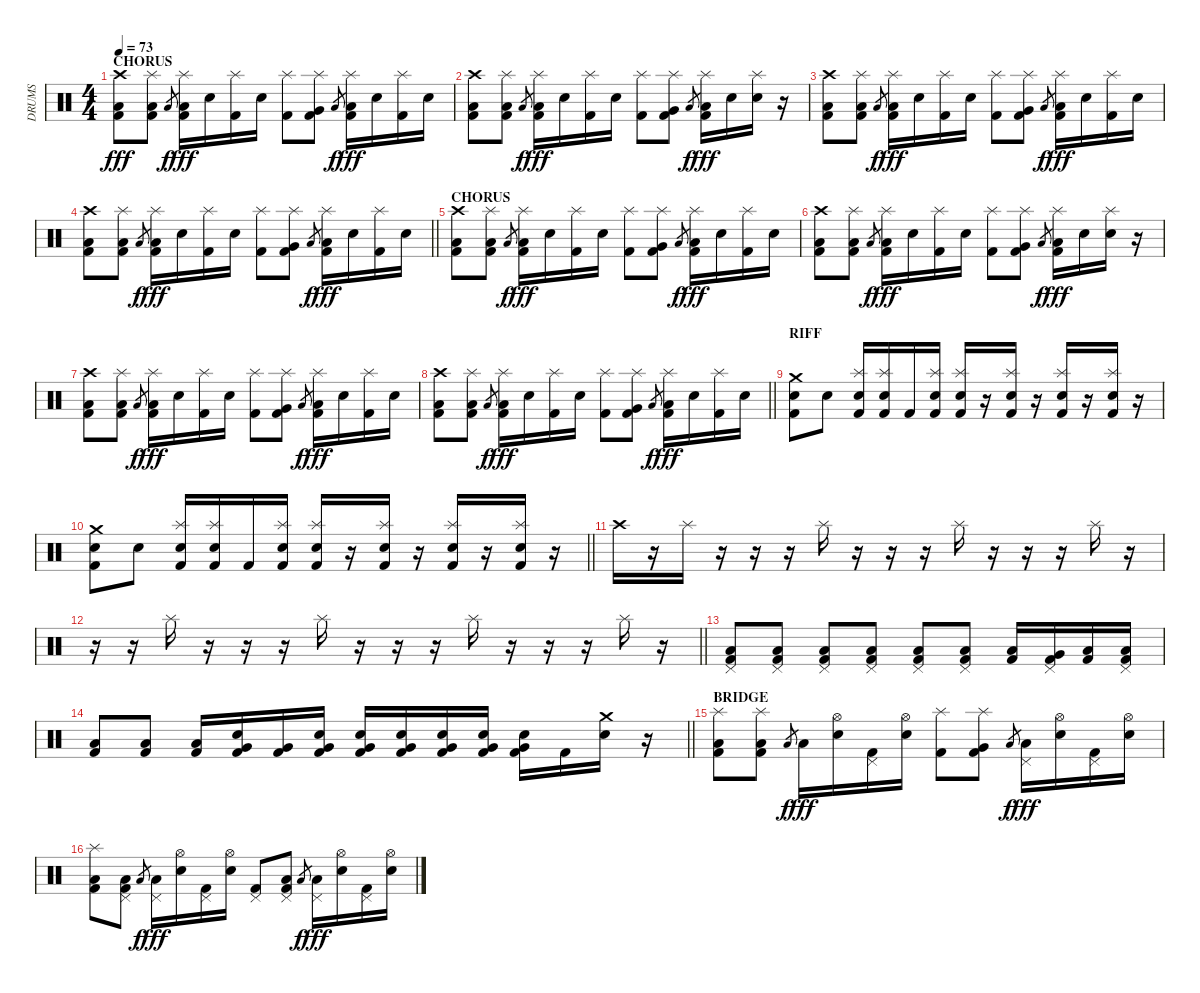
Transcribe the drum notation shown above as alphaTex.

\track ("DRUMS" "DRUMS") {instrument percussion}
\staff {score}
\articulation defaults
\ts (4 4)
\section ("" "CHORUS")
\tempo 73
\clef neutral
\ks c
("Crash high (hit)" "Low Tom (hit)" "Kick (hit) 2").8{dy fff} ("Splash (hit)" "Low Tom (hit)" "Kick (hit) 2").8 "Low Tom (hit)".8{gr dy f} ("Splash (hit)" "Low Tom (hit)" "Kick (hit) 2").16{dy fff} "Electric Snare (hit)".16 ("Splash (hit)" "Kick (hit) 2").16 "Electric Snare (hit)".16 ("Splash (hit)" "Kick (hit) 2").8 ("Splash (hit)" "Very Low Tom (hit)" "Kick (hit) 2").8 "Low Tom (hit)".8{gr dy f} ("Splash (hit)" "Low Tom (hit)" "Kick (hit) 2").16{dy fff} "Electric Snare (hit)".16 ("Splash (hit)" "Kick (hit) 2").16 "Electric Snare (hit)".16 |
("Crash high (hit)" "Low Tom (hit)" "Kick (hit) 2").8 ("Splash (hit)" "Low Tom (hit)" "Kick (hit) 2").8 "Low Tom (hit)".8{gr dy f} ("Splash (hit)" "Low Tom (hit)" "Kick (hit) 2").16{dy fff} "Electric Snare (hit)".16 ("Splash (hit)" "Kick (hit) 2").16 "Electric Snare (hit)".16 ("Splash (hit)" "Kick (hit) 2").8 ("Splash (hit)" "Very Low Tom (hit)" "Kick (hit) 2").8 "Low Tom (hit)".8{gr dy f} ("Splash (hit)" "Low Tom (hit)" "Kick (hit) 2").16{dy fff} "Electric Snare (hit)".16 ("Splash (hit)" "Electric Snare (hit)").16 r.16 |
("Crash high (hit)" "Low Tom (hit)" "Kick (hit) 2").8 ("Splash (hit)" "Low Tom (hit)" "Kick (hit) 2").8 "Low Tom (hit)".8{gr dy f} ("Splash (hit)" "Low Tom (hit)" "Kick (hit) 2").16{dy fff} "Electric Snare (hit)".16 ("Splash (hit)" "Kick (hit) 2").16 "Electric Snare (hit)".16 ("Splash (hit)" "Kick (hit) 2").8 ("Splash (hit)" "Very Low Tom (hit)" "Kick (hit) 2").8 "Low Tom (hit)".8{gr dy f} ("Splash (hit)" "Low Tom (hit)" "Kick (hit) 2").16{dy fff} "Electric Snare (hit)".16 ("Splash (hit)" "Kick (hit) 2").16 "Electric Snare (hit)".16 |
\barLineRight lightlight
("Crash high (hit)" "Low Tom (hit)" "Kick (hit) 2").8 ("Splash (hit)" "Low Tom (hit)" "Kick (hit) 2").8 "Low Tom (hit)".8{gr dy f} ("Splash (hit)" "Low Tom (hit)" "Kick (hit) 2").16{dy fff} "Electric Snare (hit)".16 ("Splash (hit)" "Kick (hit) 2").16 "Electric Snare (hit)".16 ("Splash (hit)" "Kick (hit) 2").8 ("Splash (hit)" "Very Low Tom (hit)" "Kick (hit) 2").8 "Low Tom (hit)".8{gr dy f} ("Splash (hit)" "Low Tom (hit)" "Kick (hit) 2").16{dy fff} "Electric Snare (hit)".16 ("Splash (hit)" "Kick (hit) 2").16 "Electric Snare (hit)".16 |
\section ("" "CHORUS")
("Crash high (hit)" "Low Tom (hit)" "Kick (hit) 2").8 ("Splash (hit)" "Low Tom (hit)" "Kick (hit) 2").8 "Low Tom (hit)".8{gr dy f} ("Splash (hit)" "Low Tom (hit)" "Kick (hit) 2").16{dy fff} "Electric Snare (hit)".16 ("Splash (hit)" "Kick (hit) 2").16 "Electric Snare (hit)".16 ("Splash (hit)" "Kick (hit) 2").8 ("Splash (hit)" "Very Low Tom (hit)" "Kick (hit) 2").8 "Low Tom (hit)".8{gr dy f} ("Splash (hit)" "Low Tom (hit)" "Kick (hit) 2").16{dy fff} "Electric Snare (hit)".16 ("Splash (hit)" "Kick (hit) 2").16 "Electric Snare (hit)".16 |
("Crash high (hit)" "Low Tom (hit)" "Kick (hit) 2").8 ("Splash (hit)" "Low Tom (hit)" "Kick (hit) 2").8 "Low Tom (hit)".8{gr dy f} ("Splash (hit)" "Low Tom (hit)" "Kick (hit) 2").16{dy fff} "Electric Snare (hit)".16 ("Splash (hit)" "Kick (hit) 2").16 "Electric Snare (hit)".16 ("Splash (hit)" "Kick (hit) 2").8 ("Splash (hit)" "Very Low Tom (hit)" "Kick (hit) 2").8 "Low Tom (hit)".8{gr dy f} ("Splash (hit)" "Low Tom (hit)" "Kick (hit) 2").16{dy fff} "Electric Snare (hit)".16 ("Splash (hit)" "Electric Snare (hit)").16 r.16 |
("Crash high (hit)" "Low Tom (hit)" "Kick (hit) 2").8 ("Splash (hit)" "Low Tom (hit)" "Kick (hit) 2").8 "Low Tom (hit)".8{gr dy f} ("Splash (hit)" "Low Tom (hit)" "Kick (hit) 2").16{dy fff} "Electric Snare (hit)".16 ("Splash (hit)" "Kick (hit) 2").16 "Electric Snare (hit)".16 ("Splash (hit)" "Kick (hit) 2").8 ("Splash (hit)" "Very Low Tom (hit)" "Kick (hit) 2").8 "Low Tom (hit)".8{gr dy f} ("Splash (hit)" "Low Tom (hit)" "Kick (hit) 2").16{dy fff} "Electric Snare (hit)".16 ("Splash (hit)" "Kick (hit) 2").16 "Electric Snare (hit)".16 |
\barLineRight lightlight
("Crash high (hit)" "Low Tom (hit)" "Kick (hit) 2").8 ("Splash (hit)" "Low Tom (hit)" "Kick (hit) 2").8 "Low Tom (hit)".8{gr dy f} ("Splash (hit)" "Low Tom (hit)" "Kick (hit) 2").16{dy fff} "Electric Snare (hit)".16 ("Splash (hit)" "Kick (hit) 2").16 "Electric Snare (hit)".16 ("Splash (hit)" "Kick (hit) 2").8 ("Splash (hit)" "Very Low Tom (hit)" "Kick (hit) 2").8 "Low Tom (hit)".8{gr dy f} ("Splash (hit)" "Low Tom (hit)" "Kick (hit) 2").16{dy fff} "Electric Snare (hit)".16 ("Splash (hit)" "Kick (hit) 2").16 "Electric Snare (hit)".16 |
\section ("" "RIFF")
("Crash medium (hit)" "Electric Snare (hit)" "Kick (hit) 2").8 "Electric Snare (hit)".8 ("Splash (hit)" "Electric Snare (hit)" "Kick (hit) 2").16 ("Splash (hit)" "Electric Snare (hit)" "Kick (hit) 2").16 "Kick (hit) 2".16 ("Splash (hit)" "Electric Snare (hit)" "Kick (hit) 2").16 ("Splash (hit)" "Electric Snare (hit)" "Kick (hit) 2").16 r.16 ("Splash (hit)" "Electric Snare (hit)" "Kick (hit) 2").16 r.16 ("Splash (hit)" "Electric Snare (hit)" "Kick (hit) 2").16 r.16 ("Splash (hit)" "Electric Snare (hit)" "Kick (hit) 2").16 r.16 |
\barLineRight lightlight
("Crash medium (hit)" "Electric Snare (hit)" "Kick (hit) 2").8 "Electric Snare (hit)".8 ("Splash (hit)" "Electric Snare (hit)" "Kick (hit) 2").16 ("Splash (hit)" "Electric Snare (hit)" "Kick (hit) 2").16 "Kick (hit) 2".16 ("Splash (hit)" "Electric Snare (hit)" "Kick (hit) 2").16 ("Splash (hit)" "Electric Snare (hit)" "Kick (hit) 2").16 r.16 ("Splash (hit)" "Electric Snare (hit)" "Kick (hit) 2").16 r.16 ("Splash (hit)" "Electric Snare (hit)" "Kick (hit) 2").16 r.16 ("Splash (hit)" "Electric Snare (hit)" "Kick (hit) 2").16 r.16 |
\section ("" "")
"Crash high (hit)".16 r.16 "Splash (hit)".16 r.16 r.16 r.16 "Splash (hit)".16 r.16 r.16 r.16 "Splash (hit)".16 r.16 r.16 r.16 "Splash (hit)".16 r.16 |
\barLineRight lightlight
r.16 r.16 "Splash (hit)".16 r.16 r.16 r.16 "Splash (hit)".16 r.16 r.16 r.16 "Splash (hit)".16 r.16 r.16 r.16 "Splash (hit)".16 r.16 |
("Pedal Hi-Hat (hit)" "Low Floor Tom (hit)" "Kick (hit) 2").8 ("Pedal Hi-Hat (hit)" "Low Floor Tom (hit)" "Kick (hit) 2").8 ("Pedal Hi-Hat (hit)" "Low Floor Tom (hit)" "Kick (hit) 2").8 ("Pedal Hi-Hat (hit)" "Low Floor Tom (hit)" "Kick (hit) 2").8 ("Pedal Hi-Hat (hit)" "Low Floor Tom (hit)" "Kick (hit) 2").8 ("Pedal Hi-Hat (hit)" "Low Floor Tom (hit)" "Kick (hit) 2").8 ("Low Floor Tom (hit)" "Kick (hit) 2").16 ("Pedal Hi-Hat (hit)" "Very Low Tom (hit)" "Kick (hit) 2").16 ("Low Tom (hit)" "Kick (hit) 2").16 ("Pedal Hi-Hat (hit)" "Low Floor Tom (hit)" "Kick (hit) 2").16 |
\barLineRight lightlight
("Low Floor Tom (hit)" "Kick (hit) 2").8 ("Low Floor Tom (hit)" "Kick (hit) 2").8 ("Low Floor Tom (hit)" "Kick (hit) 2").16 ("Electric Snare (hit)" "Very Low Tom (hit)" "Kick (hit) 2").16 ("Very Low Tom (hit)" "Kick (hit) 2").16 ("Electric Snare (hit)" "Very Low Tom (hit)" "Kick (hit) 2").16 ("Electric Snare (hit)" "Very Low Tom (hit)" "Kick (hit) 2").16 ("Electric Snare (hit)" "Very Low Tom (hit)" "Kick (hit) 2").16 ("Electric Snare (hit)" "Very Low Tom (hit)" "Kick (hit) 2").16 ("Electric Snare (hit)" "Very Low Tom (hit)" "Kick (hit) 2").16 ("Electric Snare (hit)" "Very Low Tom (hit)" "Kick (hit) 2").16 "Kick (hit) 2".16 ("Crash medium (hit)" "Electric Snare (hit)").16 r.16 |
\section ("" "BRIDGE ")
("Splash (hit)" "Low Tom (hit)" "Kick (hit) 2").8 ("Splash (hit)" "Low Tom (hit)" "Kick (hit) 2").8 "Low Tom (hit)".8{gr dy f} "Low Tom (hit)".16{dy fff} ("Hi-Hat (open)" "Electric Snare (hit)").16 ("Pedal Hi-Hat (hit)" "Kick (hit) 2").16 ("Hi-Hat (open)" "Electric Snare (hit)").16 ("Splash (hit)" "Kick (hit) 2").8 ("Splash (hit)" "Very Low Tom (hit)" "Kick (hit) 2").8 "Low Tom (hit)".8{gr dy f} ("Pedal Hi-Hat (hit)" "Low Tom (hit)").16{dy fff} ("Hi-Hat (open)" "Electric Snare (hit)").16 ("Pedal Hi-Hat (hit)" "Kick (hit) 2").16 ("Hi-Hat (open)" "Electric Snare (hit)").16 |
("Splash (hit)" "Low Tom (hit)" "Kick (hit) 2").8 ("Pedal Hi-Hat (hit)" "Low Tom (hit)" "Kick (hit) 2").8 "Low Tom (hit)".8{gr dy f} ("Pedal Hi-Hat (hit)" "Low Tom (hit)").16{dy fff} ("Hi-Hat (open)" "Electric Snare (hit)").16 ("Pedal Hi-Hat (hit)" "Kick (hit) 2").16 ("Hi-Hat (open)" "Electric Snare (hit)").16 ("Pedal Hi-Hat (hit)" "Kick (hit) 2").8 ("Pedal Hi-Hat (hit)" "Low Floor Tom (hit)" "Kick (hit) 2").8 "Low Tom (hit)".8{gr dy f} ("Pedal Hi-Hat (hit)" "Low Tom (hit)").16{dy fff} ("Hi-Hat (open)" "Electric Snare (hit)").16 ("Pedal Hi-Hat (hit)" "Kick (hit) 2").16 ("Hi-Hat (open)" "Electric Snare (hit)").16
